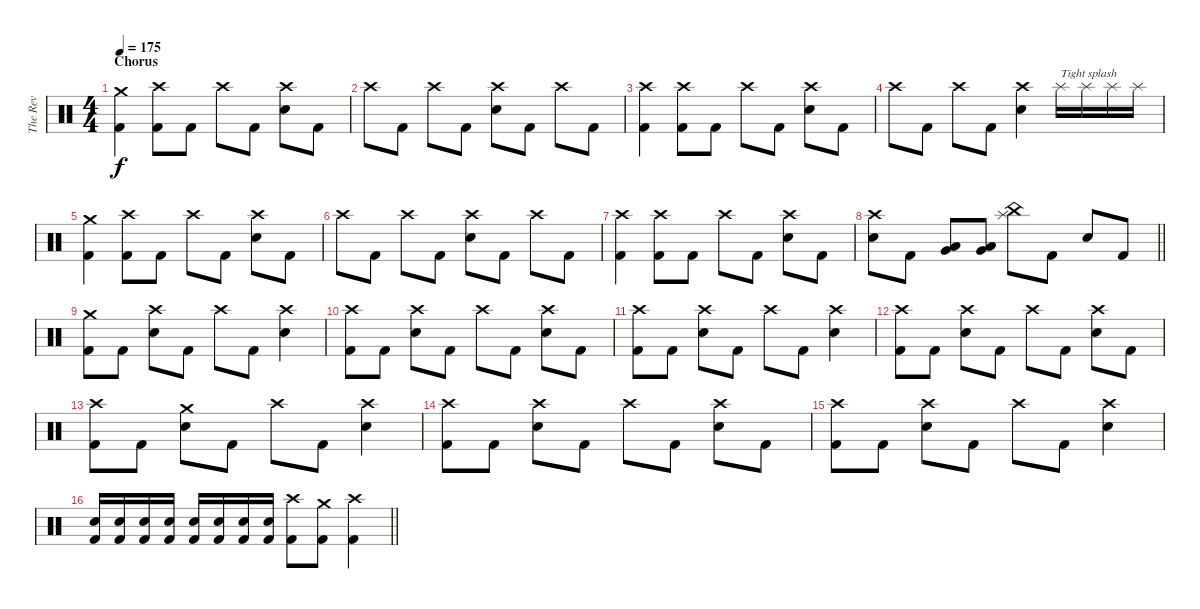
\track ("The Rev" "The Rev") {instrument percussion}
\staff {score}
\articulation defaults
\ts (4 4)
\section ("" "Chorus")
\tempo 175
\clef neutral
\ks c
("Crash medium (hit)" "Kick (hit) 2").4{dy f} ("Crash high (hit)" "Kick (hit) 2").8 "Kick (hit) 2".8 "Crash high (hit)".8 "Kick (hit) 2".8 ("Crash high (hit)" "Snare (hit) 2").8 "Kick (hit) 2".8 |
"Crash high (hit)".8 "Kick (hit) 2".8 "Crash high (hit)".8 "Kick (hit) 2".8 ("Crash high (hit)" "Snare (hit) 2").8 "Kick (hit) 2".8 "Crash high (hit)".8 "Kick (hit) 2".8 |
("Crash high (hit)" "Kick (hit) 2").4 ("Crash high (hit)" "Kick (hit) 2").8 "Kick (hit) 2".8 "Crash high (hit)".8 "Kick (hit) 2".8 ("Crash high (hit)" "Snare (hit) 2").8 "Kick (hit) 2".8 |
"Crash high (hit)".8 "Kick (hit) 2".8 "Crash high (hit)".8 "Kick (hit) 2".8 ("Crash high (hit)" "Snare (hit) 2").4 "Splash (hit)".16{txt "Tight splash"} "Splash (hit)".16 "Splash (hit)".16 "Splash (hit)".16 |
("Crash medium (hit)" "Kick (hit) 2").4 ("Crash high (hit)" "Kick (hit) 2").8 "Kick (hit) 2".8 "Crash high (hit)".8 "Kick (hit) 2".8 ("Crash high (hit)" "Snare (hit) 2").8 "Kick (hit) 2".8 |
"Crash high (hit)".8 "Kick (hit) 2".8 "Crash high (hit)".8 "Kick (hit) 2".8 ("Crash high (hit)" "Snare (hit) 2").8 "Kick (hit) 2".8 "Crash high (hit)".8 "Kick (hit) 2".8 |
("Crash high (hit)" "Kick (hit) 2").4 ("Crash high (hit)" "Kick (hit) 2").8 "Kick (hit) 2".8 "Crash high (hit)".8 "Kick (hit) 2".8 ("Crash high (hit)" "Snare (hit) 2").8 "Kick (hit) 2".8 |
\barLineRight lightlight
("Crash high (hit)" "Snare (hit) 2").8 "Kick (hit) 2".8 ("Very Low Tom (hit)" "Low Floor Tom (hit)").8 ("Very Low Tom (hit)" "Low Floor Tom (hit)").8 ("China (hit)" "Splash (hit)").8 "Kick (hit) 2".8 "Snare (hit) 2".8 "Kick (hit) 2".8 |
("Crash medium (hit)" "Kick (hit) 2").8 "Kick (hit) 2".8 ("Crash high (hit)" "Snare (hit) 2").8 "Kick (hit) 2".8 "Crash high (hit)".8 "Kick (hit) 2".8 ("Crash high (hit)" "Snare (hit) 2").4 |
("Crash high (hit)" "Kick (hit) 2").8 "Kick (hit) 2".8 ("Crash high (hit)" "Snare (hit) 2").8 "Kick (hit) 2".8 "Crash high (hit)".8 "Kick (hit) 2".8 ("Crash high (hit)" "Snare (hit) 2").8 "Kick (hit) 2".8 |
("Crash high (hit)" "Kick (hit) 2").8 "Kick (hit) 2".8 ("Crash high (hit)" "Snare (hit) 2").8 "Kick (hit) 2".8 "Crash high (hit)".8 "Kick (hit) 2".8 ("Crash high (hit)" "Snare (hit) 2").4 |
("Crash high (hit)" "Kick (hit) 2").8 "Kick (hit) 2".8 ("Crash high (hit)" "Snare (hit) 2").8 "Kick (hit) 2".8 "Crash high (hit)".8 "Kick (hit) 2".8 ("Crash high (hit)" "Snare (hit) 2").8 "Kick (hit) 2".8 |
("Crash high (hit)" "Kick (hit) 2").8 "Kick (hit) 2".8 ("Crash medium (hit)" "Snare (hit) 2").8 "Kick (hit) 2".8 "Crash high (hit)".8 "Kick (hit) 2".8 ("Crash high (hit)" "Snare (hit) 2").4 |
("Crash high (hit)" "Kick (hit) 2").8 "Kick (hit) 2".8 ("Crash high (hit)" "Snare (hit) 2").8 "Kick (hit) 2".8 "Crash high (hit)".8 "Kick (hit) 2".8 ("Crash high (hit)" "Snare (hit) 2").8 "Kick (hit) 2".8 |
("Crash high (hit)" "Kick (hit) 2").8 "Kick (hit) 2".8 ("Crash high (hit)" "Snare (hit) 2").8 "Kick (hit) 2".8 "Crash high (hit)".8 "Kick (hit) 2".8 ("Crash high (hit)" "Snare (hit) 2").4 |
\barLineRight lightlight
("Snare (hit) 2" "Kick (hit) 2").16 ("Snare (hit) 2" "Kick (hit) 2").16 ("Snare (hit) 2" "Kick (hit) 2").16 ("Snare (hit) 2" "Kick (hit) 2").16 ("Snare (hit) 2" "Kick (hit) 2").16 ("Snare (hit) 2" "Kick (hit) 2").16 ("Snare (hit) 2" "Kick (hit) 2").16 ("Snare (hit) 2" "Kick (hit) 2").16 ("Crash high (hit)" "Kick (hit) 2").8 ("Crash medium (hit)" "Kick (hit) 2").8 ("Crash high (hit)" "Kick (hit) 2").4
